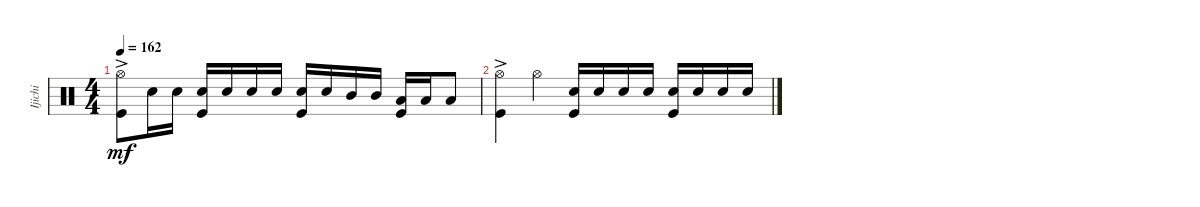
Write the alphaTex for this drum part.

\track ("Ijichi" "Ijichi") {instrument percussion}
\staff {score}
\articulation defaults
\ts (4 4)
\tempo 162
\clef neutral
\ks c
("Hi-Hat (open)"{ac} "Kick (hit)").8{dy mf} "Snare (hit) 2".16 "Snare (hit) 2".16 ("Snare (hit) 2" "Kick (hit)").16 "Snare (hit) 2".16 "Snare (hit) 2".16 "Snare (hit) 2".16 ("Snare (hit) 2" "Kick (hit)").16 "Snare (hit) 2".16 "Mid Tom (hit)".16 "Mid Tom (hit)".16 ("Low Tom (hit)" "Kick (hit)").16 "Low Tom (hit)".16 "Low Tom (hit)".8 |
("Hi-Hat (open)"{ac} "Kick (hit)").4 "Hi-Hat (open)".4 ("Snare (hit) 2" "Kick (hit)").16 "Snare (hit) 2".16 "Snare (hit) 2".16 "Snare (hit) 2".16 ("Snare (hit) 2" "Kick (hit)").16 "Snare (hit) 2".16 "Snare (hit) 2".16 "Snare (hit) 2".16
